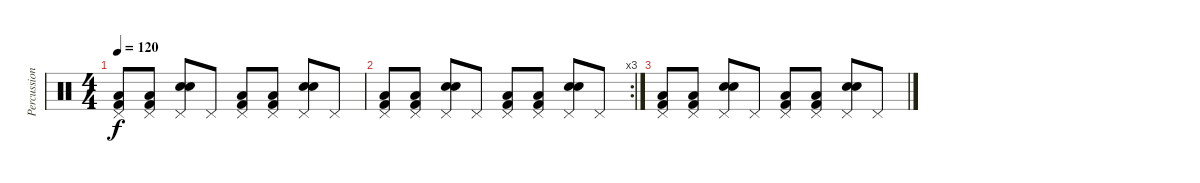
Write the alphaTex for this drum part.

\track ("Percussions" "Percussion") {instrument percussion}
\staff {score}
\articulation defaults
\ts (4 4)
\tempo 120
\clef neutral
\ks c
("Pedal Hi-Hat (hit)" "Kick (hit) 2" "Low Floor Tom (hit)").8{dy f} ("Pedal Hi-Hat (hit)" "Kick (hit) 2" "Low Floor Tom (hit)").8 ("Pedal Hi-Hat (hit)" "Snare (hit) 2" "Electric Snare (hit)").8 "Pedal Hi-Hat (hit)".8 ("Pedal Hi-Hat (hit)" "Kick (hit) 2" "Low Floor Tom (hit)").8 ("Pedal Hi-Hat (hit)" "Kick (hit) 2" "Low Floor Tom (hit)").8 ("Pedal Hi-Hat (hit)" "Snare (hit) 2" "Electric Snare (hit)").8 "Pedal Hi-Hat (hit)".8 |
\rc 3
("Pedal Hi-Hat (hit)" "Kick (hit) 2" "Low Floor Tom (hit)").8 ("Pedal Hi-Hat (hit)" "Kick (hit) 2" "Low Floor Tom (hit)").8 ("Pedal Hi-Hat (hit)" "Snare (hit) 2" "Electric Snare (hit)").8 "Pedal Hi-Hat (hit)".8 ("Pedal Hi-Hat (hit)" "Kick (hit) 2" "Low Floor Tom (hit)").8 ("Pedal Hi-Hat (hit)" "Kick (hit) 2" "Low Floor Tom (hit)").8 ("Pedal Hi-Hat (hit)" "Snare (hit) 2" "Electric Snare (hit)").8 "Pedal Hi-Hat (hit)".8 |
("Pedal Hi-Hat (hit)" "Kick (hit) 2" "Low Floor Tom (hit)").8 ("Pedal Hi-Hat (hit)" "Kick (hit) 2" "Low Floor Tom (hit)").8 ("Pedal Hi-Hat (hit)" "Snare (hit) 2" "Electric Snare (hit)").8 "Pedal Hi-Hat (hit)".8 ("Pedal Hi-Hat (hit)" "Kick (hit) 2" "Low Floor Tom (hit)").8 ("Pedal Hi-Hat (hit)" "Kick (hit) 2" "Low Floor Tom (hit)").8 ("Pedal Hi-Hat (hit)" "Snare (hit) 2" "Electric Snare (hit)").8 "Pedal Hi-Hat (hit)".8
